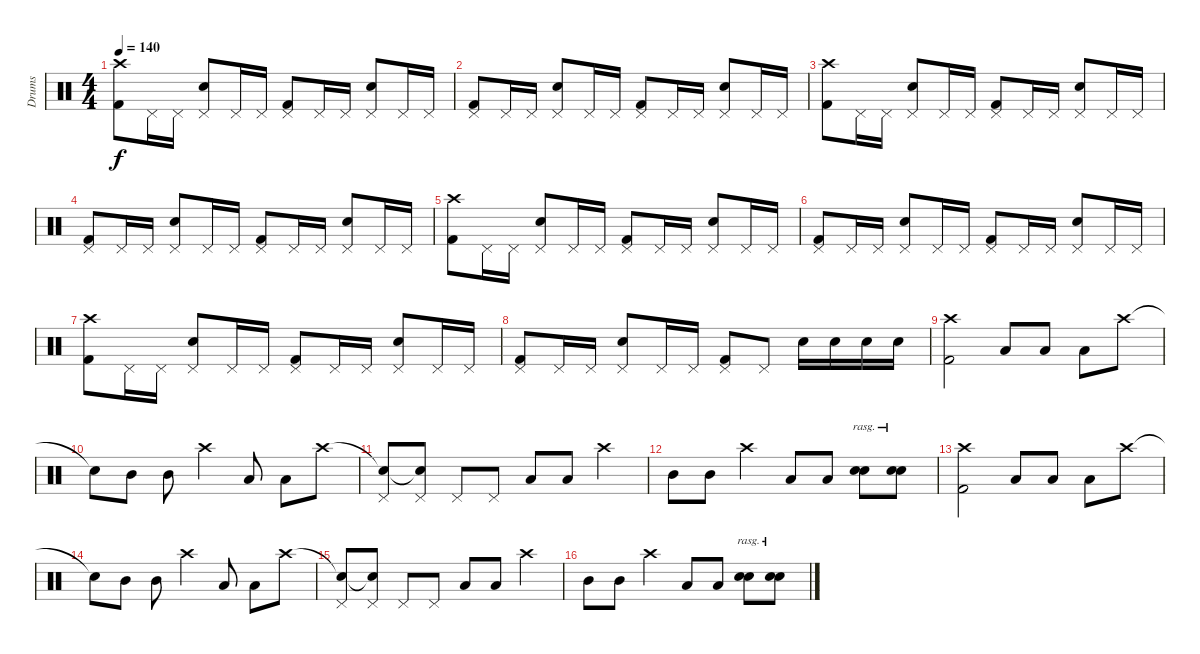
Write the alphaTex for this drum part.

\track ("Drums" "Drums") {instrument percussion}
\staff {score}
\articulation defaults
\ts (4 4)
\tempo 140
\clef neutral
\ks c
("Crash high (hit)" "Kick (hit) 2").8{dy f} "Pedal Hi-Hat (hit)".16 "Pedal Hi-Hat (hit)".16 ("Pedal Hi-Hat (hit)" "Snare (hit) 2").8 "Pedal Hi-Hat (hit)".16 "Pedal Hi-Hat (hit)".16 ("Pedal Hi-Hat (hit)" "Kick (hit) 2").8 "Pedal Hi-Hat (hit)".16 "Pedal Hi-Hat (hit)".16 ("Pedal Hi-Hat (hit)" "Snare (hit) 2").8 "Pedal Hi-Hat (hit)".16 "Pedal Hi-Hat (hit)".16 |
("Pedal Hi-Hat (hit)" "Kick (hit) 2").8 "Pedal Hi-Hat (hit)".16 "Pedal Hi-Hat (hit)".16 ("Pedal Hi-Hat (hit)" "Snare (hit) 2").8 "Pedal Hi-Hat (hit)".16 "Pedal Hi-Hat (hit)".16 ("Pedal Hi-Hat (hit)" "Kick (hit) 2").8 "Pedal Hi-Hat (hit)".16 "Pedal Hi-Hat (hit)".16 ("Pedal Hi-Hat (hit)" "Snare (hit) 2").8 "Pedal Hi-Hat (hit)".16 "Pedal Hi-Hat (hit)".16 |
("Crash high (hit)" "Kick (hit) 2").8 "Pedal Hi-Hat (hit)".16 "Pedal Hi-Hat (hit)".16 ("Pedal Hi-Hat (hit)" "Snare (hit) 2").8 "Pedal Hi-Hat (hit)".16 "Pedal Hi-Hat (hit)".16 ("Pedal Hi-Hat (hit)" "Kick (hit) 2").8 "Pedal Hi-Hat (hit)".16 "Pedal Hi-Hat (hit)".16 ("Pedal Hi-Hat (hit)" "Snare (hit) 2").8 "Pedal Hi-Hat (hit)".16 "Pedal Hi-Hat (hit)".16 |
("Pedal Hi-Hat (hit)" "Kick (hit) 2").8 "Pedal Hi-Hat (hit)".16 "Pedal Hi-Hat (hit)".16 ("Pedal Hi-Hat (hit)" "Snare (hit) 2").8 "Pedal Hi-Hat (hit)".16 "Pedal Hi-Hat (hit)".16 ("Pedal Hi-Hat (hit)" "Kick (hit) 2").8 "Pedal Hi-Hat (hit)".16 "Pedal Hi-Hat (hit)".16 ("Pedal Hi-Hat (hit)" "Snare (hit) 2").8 "Pedal Hi-Hat (hit)".16 "Pedal Hi-Hat (hit)".16 |
("Crash high (hit)" "Kick (hit) 2").8 "Pedal Hi-Hat (hit)".16 "Pedal Hi-Hat (hit)".16 ("Pedal Hi-Hat (hit)" "Snare (hit) 2").8 "Pedal Hi-Hat (hit)".16 "Pedal Hi-Hat (hit)".16 ("Pedal Hi-Hat (hit)" "Kick (hit) 2").8 "Pedal Hi-Hat (hit)".16 "Pedal Hi-Hat (hit)".16 ("Pedal Hi-Hat (hit)" "Snare (hit) 2").8 "Pedal Hi-Hat (hit)".16 "Pedal Hi-Hat (hit)".16 |
("Pedal Hi-Hat (hit)" "Kick (hit) 2").8 "Pedal Hi-Hat (hit)".16 "Pedal Hi-Hat (hit)".16 ("Pedal Hi-Hat (hit)" "Snare (hit) 2").8 "Pedal Hi-Hat (hit)".16 "Pedal Hi-Hat (hit)".16 ("Pedal Hi-Hat (hit)" "Kick (hit) 2").8 "Pedal Hi-Hat (hit)".16 "Pedal Hi-Hat (hit)".16 ("Pedal Hi-Hat (hit)" "Snare (hit) 2").8 "Pedal Hi-Hat (hit)".16 "Pedal Hi-Hat (hit)".16 |
("Crash high (hit)" "Kick (hit) 2").8 "Pedal Hi-Hat (hit)".16 "Pedal Hi-Hat (hit)".16 ("Pedal Hi-Hat (hit)" "Snare (hit) 2").8 "Pedal Hi-Hat (hit)".16 "Pedal Hi-Hat (hit)".16 ("Pedal Hi-Hat (hit)" "Kick (hit) 2").8 "Pedal Hi-Hat (hit)".16 "Pedal Hi-Hat (hit)".16 ("Pedal Hi-Hat (hit)" "Snare (hit) 2").8 "Pedal Hi-Hat (hit)".16 "Pedal Hi-Hat (hit)".16 |
("Pedal Hi-Hat (hit)" "Kick (hit) 2").8 "Pedal Hi-Hat (hit)".16 "Pedal Hi-Hat (hit)".16 ("Pedal Hi-Hat (hit)" "Snare (hit) 2").8 "Pedal Hi-Hat (hit)".16 "Pedal Hi-Hat (hit)".16 ("Pedal Hi-Hat (hit)" "Kick (hit) 2").8 "Pedal Hi-Hat (hit)".8 "Snare (hit) 2".16 "Snare (hit) 2".16 "Snare (hit) 2".16 "Snare (hit) 2".16 |
("Crash high (hit)" "Kick (hit) 2").2 "Low Tom (hit)".8 "Low Tom (hit)".8 "Low Tom (hit)".8 "Crash high (hit)".8 |
"Snare (hit)"{t}.8 "Mid Tom (hit)".8 "Mid Tom (hit)".8 "Crash high (hit)".4 "Low Floor Tom (hit)".8 "Low Floor Tom (hit)".8 "Crash high (hit)".8 |
("Snare (hit)"{t} "Pedal Hi-Hat (hit)").8 ("Snare (hit)"{t} "Pedal Hi-Hat (hit)").8 "Pedal Hi-Hat (hit)".8 "Pedal Hi-Hat (hit)".8 "Low Tom (hit)".8 "Low Tom (hit)".8 "Crash high (hit)".4 |
"Mid Tom (hit)".8 "Mid Tom (hit)".8 "Crash high (hit)".4 "Low Floor Tom (hit)".8 "Low Floor Tom (hit)".8 ("Snare (hit) 2" "Snare (hit) 2").8{bu 240 rasg ii} ("Snare (hit) 2" "Snare (hit) 2").8{bu 240 rasg ii} |
("Crash high (hit)" "Kick (hit) 2").2 "Low Tom (hit)".8 "Low Tom (hit)".8 "Low Tom (hit)".8 "Crash high (hit)".8 |
"Snare (hit)"{t}.8 "Mid Tom (hit)".8 "Mid Tom (hit)".8 "Crash high (hit)".4 "Low Floor Tom (hit)".8 "Low Floor Tom (hit)".8 "Crash high (hit)".8 |
("Snare (hit)"{t} "Pedal Hi-Hat (hit)").8 ("Snare (hit)"{t} "Pedal Hi-Hat (hit)").8 "Pedal Hi-Hat (hit)".8 "Pedal Hi-Hat (hit)".8 "Low Tom (hit)".8 "Low Tom (hit)".8 "Crash high (hit)".4 |
"Mid Tom (hit)".8 "Mid Tom (hit)".8 "Crash high (hit)".4 "Low Floor Tom (hit)".8 "Low Floor Tom (hit)".8 ("Snare (hit) 2" "Snare (hit) 2").8{bu 240 rasg ii} ("Snare (hit) 2" "Snare (hit) 2").8{bu 240 rasg ii}
